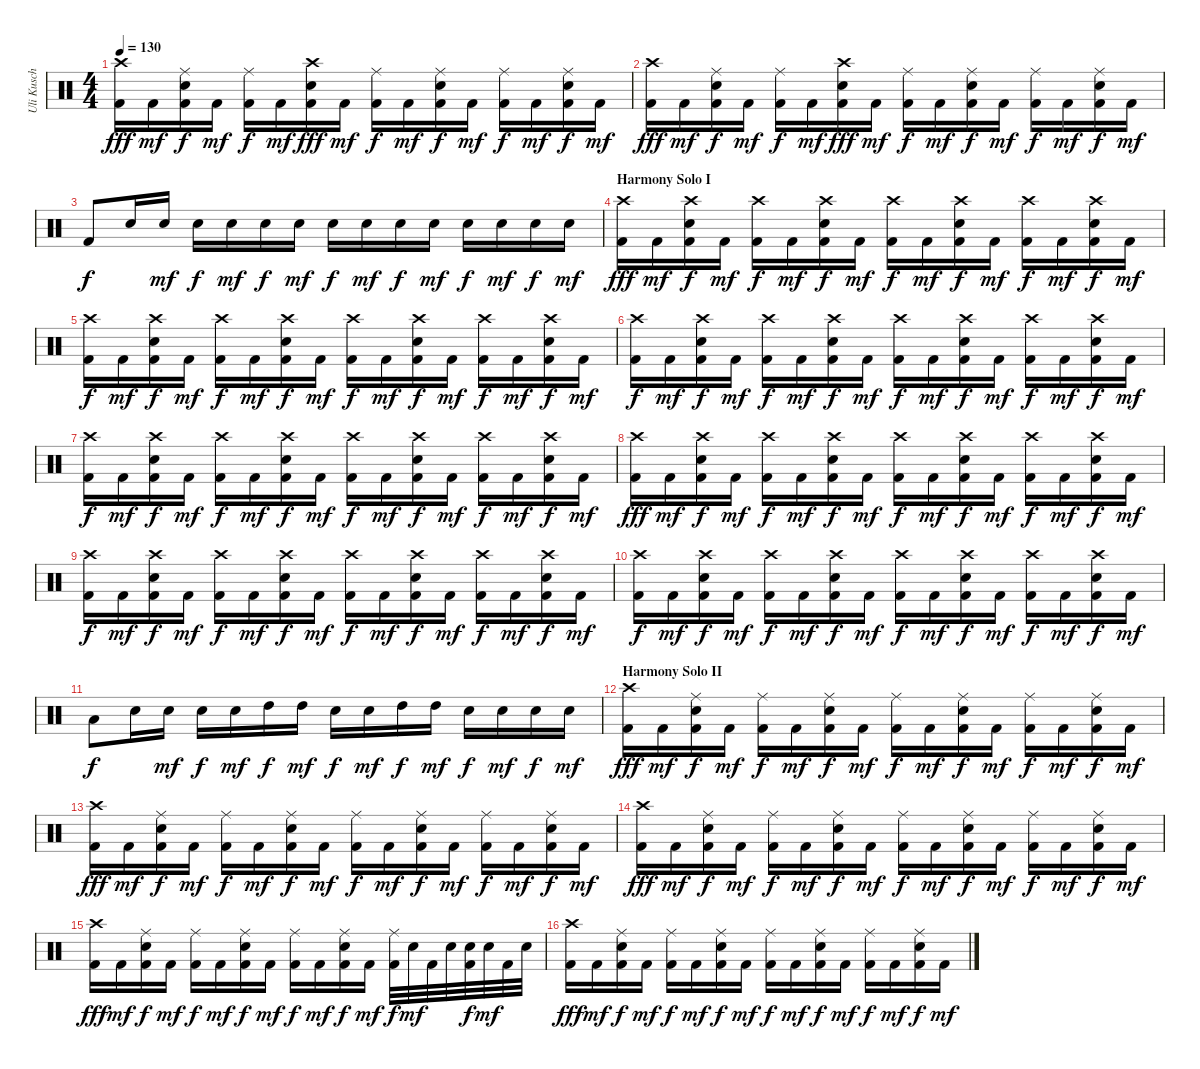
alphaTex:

\track ("Uli Kusch" "Uli Kusch") {instrument percussion}
\staff {score}
\articulation defaults
\ts (4 4)
\tempo 130
\clef neutral
\ks c
("Kick (hit) 2" "Crash high (hit)").16{dy fff} "Kick (hit) 2".16{dy mf} ("Kick (hit) 2" "Electric Snare (hit)" "Ride (middle)").16{dy f} "Kick (hit) 2".16{dy mf} ("Kick (hit) 2" "Ride (middle)").16{dy f} "Kick (hit) 2".16{dy mf} ("Kick (hit) 2" "Electric Snare (hit)" "Crash high (hit)").16{dy fff} "Kick (hit) 2".16{dy mf} ("Kick (hit) 2" "Ride (middle)").16{dy f} "Kick (hit) 2".16{dy mf} ("Kick (hit) 2" "Electric Snare (hit)" "Ride (middle)").16{dy f} "Kick (hit) 2".16{dy mf} ("Kick (hit) 2" "Ride (middle)").16{dy f} "Kick (hit) 2".16{dy mf} ("Kick (hit) 2" "Electric Snare (hit)" "Ride (middle)").16{dy f} "Kick (hit) 2".16{dy mf} |
("Kick (hit) 2" "Crash high (hit)").16{dy fff} "Kick (hit) 2".16{dy mf} ("Kick (hit) 2" "Electric Snare (hit)" "Ride (middle)").16{dy f} "Kick (hit) 2".16{dy mf} ("Kick (hit) 2" "Ride (middle)").16{dy f} "Kick (hit) 2".16{dy mf} ("Kick (hit) 2" "Electric Snare (hit)" "Crash high (hit)").16{dy fff} "Kick (hit) 2".16{dy mf} ("Kick (hit) 2" "Ride (middle)").16{dy f} "Kick (hit) 2".16{dy mf} ("Kick (hit) 2" "Electric Snare (hit)" "Ride (middle)").16{dy f} "Kick (hit) 2".16{dy mf} ("Kick (hit) 2" "Ride (middle)").16{dy f} "Kick (hit) 2".16{dy mf} ("Kick (hit) 2" "Electric Snare (hit)" "Ride (middle)").16{dy f} "Kick (hit) 2".16{dy mf} |
"Kick (hit) 2".8{dy f} "Snare (hit) 2".16 "Snare (hit) 2".16{dy mf} "Snare (hit) 2".16{dy f} "Snare (hit) 2".16{dy mf} "Electric Snare (hit)".16{dy f} "Electric Snare (hit)".16{dy mf} "Electric Snare (hit)".16{dy f} "Electric Snare (hit)".16{dy mf} "Electric Snare (hit)".16{dy f} "Electric Snare (hit)".16{dy mf} "Snare (hit) 2".16{dy f} "Snare (hit) 2".16{dy mf} "Electric Snare (hit)".16{dy f} "Electric Snare (hit)".16{dy mf} |
\section ("" "Harmony Solo I")
("Kick (hit) 2" "Crash high (hit)").16{dy fff} "Kick (hit) 2".16{dy mf} ("Kick (hit) 2" "Electric Snare (hit)" "Crash high (hit)").16{dy f} "Kick (hit) 2".16{dy mf} ("Kick (hit) 2" "Crash high (hit)").16{dy f} "Kick (hit) 2".16{dy mf} ("Kick (hit) 2" "Electric Snare (hit)" "Crash high (hit)").16{dy f} "Kick (hit) 2".16{dy mf} ("Kick (hit) 2" "Crash high (hit)").16{dy f} "Kick (hit) 2".16{dy mf} ("Kick (hit) 2" "Electric Snare (hit)" "Crash high (hit)").16{dy f} "Kick (hit) 2".16{dy mf} ("Kick (hit) 2" "Crash high (hit)").16{dy f} "Kick (hit) 2".16{dy mf} ("Kick (hit) 2" "Electric Snare (hit)" "Crash high (hit)").16{dy f} "Kick (hit) 2".16{dy mf} |
("Kick (hit) 2" "Crash high (hit)").16{dy f} "Kick (hit) 2".16{dy mf} ("Kick (hit) 2" "Electric Snare (hit)" "Crash high (hit)").16{dy f} "Kick (hit) 2".16{dy mf} ("Kick (hit) 2" "Crash high (hit)").16{dy f} "Kick (hit) 2".16{dy mf} ("Kick (hit) 2" "Electric Snare (hit)" "Crash high (hit)").16{dy f} "Kick (hit) 2".16{dy mf} ("Kick (hit) 2" "Crash high (hit)").16{dy f} "Kick (hit) 2".16{dy mf} ("Kick (hit) 2" "Electric Snare (hit)" "Crash high (hit)").16{dy f} "Kick (hit) 2".16{dy mf} ("Kick (hit) 2" "Crash high (hit)").16{dy f} "Kick (hit) 2".16{dy mf} ("Kick (hit) 2" "Electric Snare (hit)" "Crash high (hit)").16{dy f} "Kick (hit) 2".16{dy mf} |
("Kick (hit) 2" "Crash high (hit)").16{dy f} "Kick (hit) 2".16{dy mf} ("Kick (hit) 2" "Electric Snare (hit)" "Crash high (hit)").16{dy f} "Kick (hit) 2".16{dy mf} ("Kick (hit) 2" "Crash high (hit)").16{dy f} "Kick (hit) 2".16{dy mf} ("Kick (hit) 2" "Electric Snare (hit)" "Crash high (hit)").16{dy f} "Kick (hit) 2".16{dy mf} ("Kick (hit) 2" "Crash high (hit)").16{dy f} "Kick (hit) 2".16{dy mf} ("Kick (hit) 2" "Electric Snare (hit)" "Crash high (hit)").16{dy f} "Kick (hit) 2".16{dy mf} ("Kick (hit) 2" "Crash high (hit)").16{dy f} "Kick (hit) 2".16{dy mf} ("Kick (hit) 2" "Electric Snare (hit)" "Crash high (hit)").16{dy f} "Kick (hit) 2".16{dy mf} |
("Kick (hit) 2" "Crash high (hit)").16{dy f} "Kick (hit) 2".16{dy mf} ("Kick (hit) 2" "Electric Snare (hit)" "Crash high (hit)").16{dy f} "Kick (hit) 2".16{dy mf} ("Kick (hit) 2" "Crash high (hit)").16{dy f} "Kick (hit) 2".16{dy mf} ("Kick (hit) 2" "Electric Snare (hit)" "Crash high (hit)").16{dy f} "Kick (hit) 2".16{dy mf} ("Kick (hit) 2" "Crash high (hit)").16{dy f} "Kick (hit) 2".16{dy mf} ("Kick (hit) 2" "Electric Snare (hit)" "Crash high (hit)").16{dy f} "Kick (hit) 2".16{dy mf} ("Kick (hit) 2" "Crash high (hit)").16{dy f} "Kick (hit) 2".16{dy mf} ("Kick (hit) 2" "Electric Snare (hit)" "Crash high (hit)").16{dy f} "Kick (hit) 2".16{dy mf} |
("Kick (hit) 2" "Crash high (hit)").16{dy fff} "Kick (hit) 2".16{dy mf} ("Kick (hit) 2" "Electric Snare (hit)" "Crash high (hit)").16{dy f} "Kick (hit) 2".16{dy mf} ("Kick (hit) 2" "Crash high (hit)").16{dy f} "Kick (hit) 2".16{dy mf} ("Kick (hit) 2" "Electric Snare (hit)" "Crash high (hit)").16{dy f} "Kick (hit) 2".16{dy mf} ("Kick (hit) 2" "Crash high (hit)").16{dy f} "Kick (hit) 2".16{dy mf} ("Kick (hit) 2" "Electric Snare (hit)" "Crash high (hit)").16{dy f} "Kick (hit) 2".16{dy mf} ("Kick (hit) 2" "Crash high (hit)").16{dy f} "Kick (hit) 2".16{dy mf} ("Kick (hit) 2" "Electric Snare (hit)" "Crash high (hit)").16{dy f} "Kick (hit) 2".16{dy mf} |
("Kick (hit) 2" "Crash high (hit)").16{dy f} "Kick (hit) 2".16{dy mf} ("Kick (hit) 2" "Electric Snare (hit)" "Crash high (hit)").16{dy f} "Kick (hit) 2".16{dy mf} ("Kick (hit) 2" "Crash high (hit)").16{dy f} "Kick (hit) 2".16{dy mf} ("Kick (hit) 2" "Electric Snare (hit)" "Crash high (hit)").16{dy f} "Kick (hit) 2".16{dy mf} ("Kick (hit) 2" "Crash high (hit)").16{dy f} "Kick (hit) 2".16{dy mf} ("Kick (hit) 2" "Electric Snare (hit)" "Crash high (hit)").16{dy f} "Kick (hit) 2".16{dy mf} ("Kick (hit) 2" "Crash high (hit)").16{dy f} "Kick (hit) 2".16{dy mf} ("Kick (hit) 2" "Electric Snare (hit)" "Crash high (hit)").16{dy f} "Kick (hit) 2".16{dy mf} |
("Kick (hit) 2" "Crash high (hit)").16{dy f} "Kick (hit) 2".16{dy mf} ("Kick (hit) 2" "Electric Snare (hit)" "Crash high (hit)").16{dy f} "Kick (hit) 2".16{dy mf} ("Kick (hit) 2" "Crash high (hit)").16{dy f} "Kick (hit) 2".16{dy mf} ("Kick (hit) 2" "Electric Snare (hit)" "Crash high (hit)").16{dy f} "Kick (hit) 2".16{dy mf} ("Kick (hit) 2" "Crash high (hit)").16{dy f} "Kick (hit) 2".16{dy mf} ("Kick (hit) 2" "Electric Snare (hit)" "Crash high (hit)").16{dy f} "Kick (hit) 2".16{dy mf} ("Kick (hit) 2" "Crash high (hit)").16{dy f} "Kick (hit) 2".16{dy mf} ("Kick (hit) 2" "Electric Snare (hit)" "Crash high (hit)").16{dy f} "Kick (hit) 2".16{dy mf} |
"Low Floor Tom (hit)".8{dy f} "Electric Snare (hit)".16 "Electric Snare (hit)".16{dy mf} "Electric Snare (hit)".16{dy f} "Electric Snare (hit)".16{dy mf} "High Tom (hit)".16{dy f} "High Tom (hit)".16{dy mf} "Electric Snare (hit)".16{dy f} "Electric Snare (hit)".16{dy mf} "High Tom (hit)".16{dy f} "High Tom (hit)".16{dy mf} "Electric Snare (hit)".16{dy f} "Electric Snare (hit)".16{dy mf} "Electric Snare (hit)".16{dy f} "Electric Snare (hit)".16{dy mf} |
\section ("" "Harmony Solo II")
("Kick (hit) 2" "Crash high (hit)").16{dy fff} "Kick (hit) 2".16{dy mf} ("Kick (hit) 2" "Electric Snare (hit)" "Ride (middle)").16{dy f} "Kick (hit) 2".16{dy mf} ("Kick (hit) 2" "Ride (middle)").16{dy f} "Kick (hit) 2".16{dy mf} ("Kick (hit) 2" "Electric Snare (hit)" "Ride (middle)").16{dy f} "Kick (hit) 2".16{dy mf} ("Kick (hit) 2" "Ride (middle)").16{dy f} "Kick (hit) 2".16{dy mf} ("Kick (hit) 2" "Electric Snare (hit)" "Ride (middle)").16{dy f} "Kick (hit) 2".16{dy mf} ("Kick (hit) 2" "Ride (middle)").16{dy f} "Kick (hit) 2".16{dy mf} ("Kick (hit) 2" "Electric Snare (hit)" "Ride (middle)").16{dy f} "Kick (hit) 2".16{dy mf} |
("Kick (hit) 2" "Crash high (hit)").16{dy fff} "Kick (hit) 2".16{dy mf} ("Kick (hit) 2" "Electric Snare (hit)" "Ride (middle)").16{dy f} "Kick (hit) 2".16{dy mf} ("Kick (hit) 2" "Ride (middle)").16{dy f} "Kick (hit) 2".16{dy mf} ("Kick (hit) 2" "Electric Snare (hit)" "Ride (middle)").16{dy f} "Kick (hit) 2".16{dy mf} ("Kick (hit) 2" "Ride (middle)").16{dy f} "Kick (hit) 2".16{dy mf} ("Kick (hit) 2" "Electric Snare (hit)" "Ride (middle)").16{dy f} "Kick (hit) 2".16{dy mf} ("Kick (hit) 2" "Ride (middle)").16{dy f} "Kick (hit) 2".16{dy mf} ("Kick (hit) 2" "Electric Snare (hit)" "Ride (middle)").16{dy f} "Kick (hit) 2".16{dy mf} |
("Kick (hit) 2" "Crash high (hit)").16{dy fff} "Kick (hit) 2".16{dy mf} ("Kick (hit) 2" "Electric Snare (hit)" "Ride (middle)").16{dy f} "Kick (hit) 2".16{dy mf} ("Kick (hit) 2" "Ride (middle)").16{dy f} "Kick (hit) 2".16{dy mf} ("Kick (hit) 2" "Electric Snare (hit)" "Ride (middle)").16{dy f} "Kick (hit) 2".16{dy mf} ("Kick (hit) 2" "Ride (middle)").16{dy f} "Kick (hit) 2".16{dy mf} ("Kick (hit) 2" "Electric Snare (hit)" "Ride (middle)").16{dy f} "Kick (hit) 2".16{dy mf} ("Kick (hit) 2" "Ride (middle)").16{dy f} "Kick (hit) 2".16{dy mf} ("Kick (hit) 2" "Electric Snare (hit)" "Ride (middle)").16{dy f} "Kick (hit) 2".16{dy mf} |
("Kick (hit) 2" "Crash high (hit)").16{dy fff} "Kick (hit) 2".16{dy mf} ("Kick (hit) 2" "Electric Snare (hit)" "Ride (middle)").16{dy f} "Kick (hit) 2".16{dy mf} ("Kick (hit) 2" "Ride (middle)").16{dy f} "Kick (hit) 2".16{dy mf} ("Kick (hit) 2" "Electric Snare (hit)" "Ride (middle)").16{dy f} "Kick (hit) 2".16{dy mf} ("Kick (hit) 2" "Ride (middle)").16{dy f} "Kick (hit) 2".16{dy mf} ("Kick (hit) 2" "Electric Snare (hit)" "Ride (middle)").16{dy f} "Kick (hit) 2".16{dy mf} ("Kick (hit) 2" "Ride (middle)").32{dy f} "Electric Snare (hit)".32{dy mf} "Kick (hit) 2".32 "Electric Snare (hit)".32 ("Kick (hit) 2" "Electric Snare (hit)").32{dy f} "Electric Snare (hit)".32{dy mf} "Kick (hit) 2".32 "Electric Snare (hit)".32 |
("Kick (hit) 2" "Crash high (hit)").16{dy fff} "Kick (hit) 2".16{dy mf} ("Kick (hit) 2" "Electric Snare (hit)" "Ride (middle)").16{dy f} "Kick (hit) 2".16{dy mf} ("Kick (hit) 2" "Ride (middle)").16{dy f} "Kick (hit) 2".16{dy mf} ("Kick (hit) 2" "Electric Snare (hit)" "Ride (middle)").16{dy f} "Kick (hit) 2".16{dy mf} ("Kick (hit) 2" "Ride (middle)").16{dy f} "Kick (hit) 2".16{dy mf} ("Kick (hit) 2" "Electric Snare (hit)" "Ride (middle)").16{dy f} "Kick (hit) 2".16{dy mf} ("Kick (hit) 2" "Ride (middle)").16{dy f} "Kick (hit) 2".16{dy mf} ("Kick (hit) 2" "Electric Snare (hit)" "Ride (middle)").16{dy f} "Kick (hit) 2".16{dy mf}
